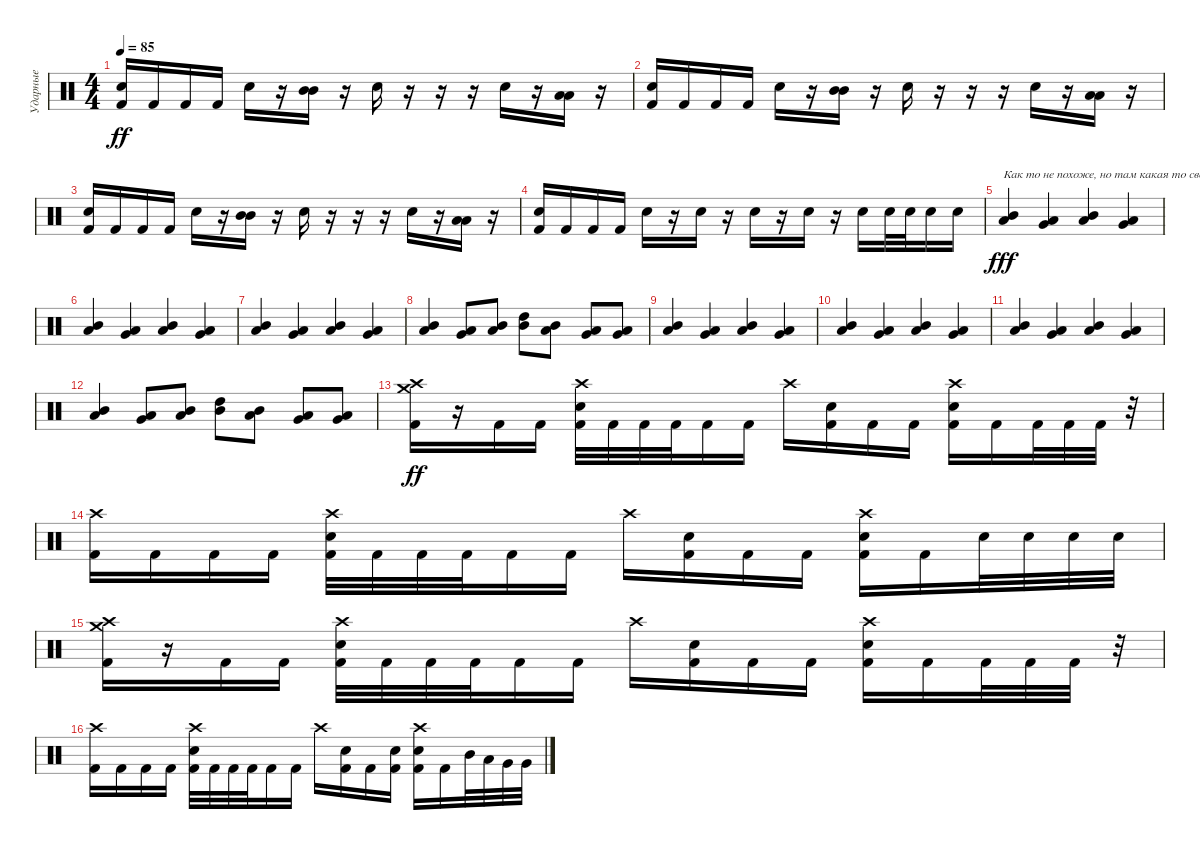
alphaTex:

\track ("Ударные" "Ударные") {instrument percussion}
\staff {score}
\articulation defaults
\ts (4 4)
\tempo 85
\clef neutral
\ks c
("Electric Snare (hit)" "Kick (hit) 2").16{dy ff} "Kick (hit) 2".16 "Kick (hit) 2".16 "Kick (hit) 2".16 "Electric Snare (hit)".16 r.16 ("Mid Tom (hit)" "Mid Tom (hit)").16 r.16 "Electric Snare (hit)".16 r.16 r.16 r.16 "Electric Snare (hit)".16 r.16 ("Low Tom (hit)" "Low Tom (hit)").16 r.16 |
("Electric Snare (hit)" "Kick (hit) 2").16 "Kick (hit) 2".16 "Kick (hit) 2".16 "Kick (hit) 2".16 "Electric Snare (hit)".16 r.16 ("Mid Tom (hit)" "Mid Tom (hit)").16 r.16 "Electric Snare (hit)".16 r.16 r.16 r.16 "Electric Snare (hit)".16 r.16 ("Low Tom (hit)" "Low Tom (hit)").16 r.16 |
("Electric Snare (hit)" "Kick (hit) 2").16 "Kick (hit) 2".16 "Kick (hit) 2".16 "Kick (hit) 2".16 "Electric Snare (hit)".16 r.16 ("Mid Tom (hit)" "Mid Tom (hit)").16 r.16 "Electric Snare (hit)".16 r.16 r.16 r.16 "Electric Snare (hit)".16 r.16 ("Low Tom (hit)" "Low Tom (hit)").16 r.16 |
("Electric Snare (hit)" "Kick (hit) 2").16 "Kick (hit) 2".16 "Kick (hit) 2".16 "Kick (hit) 2".16 "Electric Snare (hit)".16 r.16 "Electric Snare (hit)".16 r.16 "Electric Snare (hit)".16 r.16 "Electric Snare (hit)".16 r.16 "Electric Snare (hit)".16 "Electric Snare (hit)".32 "Electric Snare (hit)".32 "Electric Snare (hit)".16 "Electric Snare (hit)".16 |
("Mid Tom (hit)" "Low Tom (hit)").4{txt "Как то не похоже, но там какая то сводка томов..." dy fff} ("Low Tom (hit)" "Very Low Tom (hit)").4 ("Mid Tom (hit)" "Low Tom (hit)").4 ("Low Tom (hit)" "Very Low Tom (hit)").4 |
("Mid Tom (hit)" "Low Tom (hit)").4 ("Low Tom (hit)" "Very Low Tom (hit)").4 ("Mid Tom (hit)" "Low Tom (hit)").4 ("Low Tom (hit)" "Very Low Tom (hit)").4 |
("Mid Tom (hit)" "Low Tom (hit)").4 ("Low Tom (hit)" "Very Low Tom (hit)").4 ("Mid Tom (hit)" "Low Tom (hit)").4 ("Low Tom (hit)" "Very Low Tom (hit)").4 |
("Low Tom (hit)" "Mid Tom (hit)").4 ("Low Tom (hit)" "Very Low Tom (hit)").8 ("Low Tom (hit)" "Mid Tom (hit)").8 ("High Tom (hit)" "Mid Tom (hit)").8 ("Low Tom (hit)" "Mid Tom (hit)").8 ("Very Low Tom (hit)" "Low Tom (hit)").8 ("Low Floor Tom (hit)" "Very Low Tom (hit)").8 |
("Mid Tom (hit)" "Low Tom (hit)").4 ("Low Tom (hit)" "Very Low Tom (hit)").4 ("Mid Tom (hit)" "Low Tom (hit)").4 ("Low Tom (hit)" "Very Low Tom (hit)").4 |
("Mid Tom (hit)" "Low Tom (hit)").4 ("Low Tom (hit)" "Very Low Tom (hit)").4 ("Mid Tom (hit)" "Low Tom (hit)").4 ("Low Tom (hit)" "Very Low Tom (hit)").4 |
("Mid Tom (hit)" "Low Tom (hit)").4 ("Low Tom (hit)" "Very Low Tom (hit)").4 ("Mid Tom (hit)" "Low Tom (hit)").4 ("Low Tom (hit)" "Very Low Tom (hit)").4 |
("Low Tom (hit)" "Mid Tom (hit)").4 ("Low Tom (hit)" "Very Low Tom (hit)").8 ("Low Tom (hit)" "Mid Tom (hit)").8 ("High Tom (hit)" "Mid Tom (hit)").8 ("Low Tom (hit)" "Mid Tom (hit)").8 ("Very Low Tom (hit)" "Low Tom (hit)").8 ("Low Floor Tom (hit)" "Very Low Tom (hit)").8 |
("Crash high (hit)" "Crash medium (hit)" "Kick (hit) 2").16{dy ff} r.16 "Kick (hit) 2".16 "Kick (hit) 2".16 ("Crash high (hit)" "Electric Snare (hit)" "Kick (hit) 2").32 "Kick (hit) 2".32 "Kick (hit) 2".32 "Kick (hit) 2".32 "Kick (hit) 2".16 "Kick (hit) 2".16 "Crash high (hit)".16 ("Electric Snare (hit)" "Kick (hit) 2").16 "Kick (hit) 2".16 "Kick (hit) 2".16 ("Crash high (hit)" "Electric Snare (hit)" "Kick (hit) 2").16 "Kick (hit) 2".16 "Kick (hit) 2".32 "Kick (hit) 2".32 "Kick (hit) 2".32 r.32 |
("Crash high (hit)" "Kick (hit) 2").16 "Kick (hit) 2".16 "Kick (hit) 2".16 "Kick (hit) 2".16 ("Crash high (hit)" "Electric Snare (hit)" "Kick (hit) 2").32 "Kick (hit) 2".32 "Kick (hit) 2".32 "Kick (hit) 2".32 "Kick (hit) 2".16 "Kick (hit) 2".16 "Crash high (hit)".16 ("Electric Snare (hit)" "Kick (hit) 2").16 "Kick (hit) 2".16 "Kick (hit) 2".16 ("Crash high (hit)" "Electric Snare (hit)" "Kick (hit) 2").16 "Kick (hit) 2".16 "Electric Snare (hit)".32 "Electric Snare (hit)".32 "Electric Snare (hit)".32 "Electric Snare (hit)".32 |
("Crash high (hit)" "Crash medium (hit)" "Kick (hit) 2").16 r.16 "Kick (hit) 2".16 "Kick (hit) 2".16 ("Crash high (hit)" "Electric Snare (hit)" "Kick (hit) 2").32 "Kick (hit) 2".32 "Kick (hit) 2".32 "Kick (hit) 2".32 "Kick (hit) 2".16 "Kick (hit) 2".16 "Crash high (hit)".16 ("Electric Snare (hit)" "Kick (hit) 2").16 "Kick (hit) 2".16 "Kick (hit) 2".16 ("Crash high (hit)" "Electric Snare (hit)" "Kick (hit) 2").16 "Kick (hit) 2".16 "Kick (hit) 2".32 "Kick (hit) 2".32 "Kick (hit) 2".32 r.32 |
("Crash high (hit)" "Kick (hit) 2").16 "Kick (hit) 2".16 "Kick (hit) 2".16 "Kick (hit) 2".16 ("Crash high (hit)" "Electric Snare (hit)" "Kick (hit) 2").32 "Kick (hit) 2".32 "Kick (hit) 2".32 "Kick (hit) 2".32 "Kick (hit) 2".16 "Kick (hit) 2".16 "Crash high (hit)".16 ("Electric Snare (hit)" "Kick (hit) 2").16 "Kick (hit) 2".16 ("Electric Snare (hit)" "Kick (hit) 2").16 ("Crash high (hit)" "Electric Snare (hit)" "Kick (hit) 2").16 "Kick (hit) 2".16 "Mid Tom (hit)".32 "Low Tom (hit)".32 "Very Low Tom (hit)".32 "Very Low Tom (hit)".32
